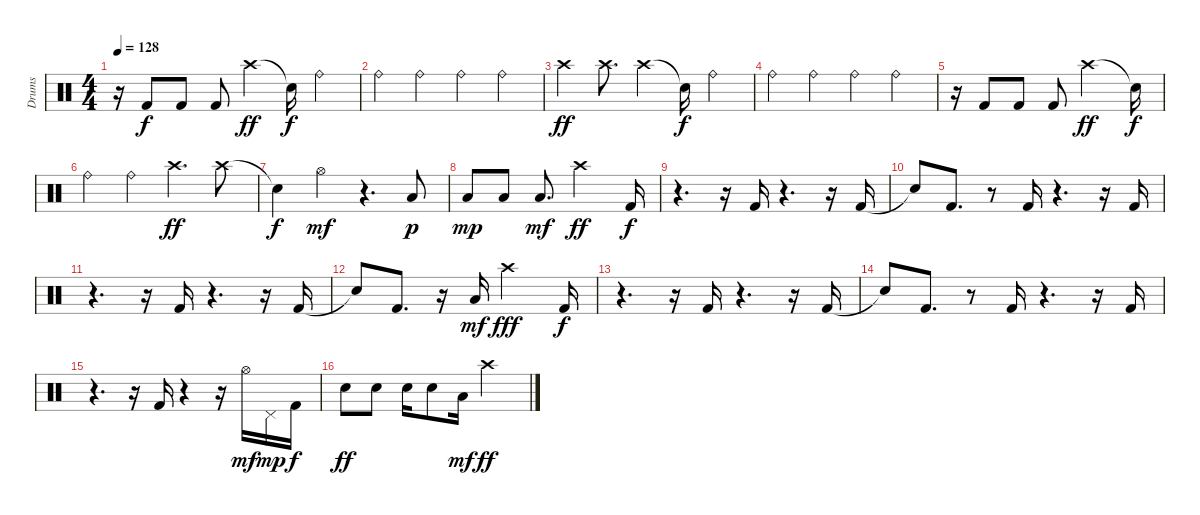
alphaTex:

\track ("Drums                               " "Drums     ") {instrument percussion}
\staff {score}
\articulation defaults
\ts (4 4)
\tempo 128
\clef neutral
\ks c
r.16{dy f} "Kick (hit) 2".8 "Kick (hit) 2".8 "Kick (hit) 2".8 "Crash high (hit)".4{dy ff} "Snare (hit)"{t}.16{dy f} "Ride (bell)".4 |
"Ride (bell)".4 "Ride (bell)".4 "Ride (bell)".4 "Ride (bell)".4 |
"Crash high (hit)".4{dy ff} "Crash high (hit)".8{d} "Crash high (hit)".4 "Snare (hit)"{t}.16{dy f} "Ride (bell)".4 |
"Ride (bell)".4 "Ride (bell)".4 "Ride (bell)".4 "Ride (bell)".4 |
r.16 "Kick (hit) 2".8 "Kick (hit) 2".8 "Kick (hit) 2".8 "Crash high (hit)".2{dy ff} "Snare (hit)"{t}.16{dy f} |
"Ride (bell)".4 "Ride (bell)".4 "Crash high (hit)".4{d dy ff} "Crash high (hit)".8 |
"Snare (hit)"{t}.4{dy f} "Hi-Hat (open)".4{dy mf} r.4{d} "Low Tom (hit)".8{dy p} |
"Low Tom (hit)".8{dy mp} "Low Tom (hit)".8 "Low Tom (hit)".8{d dy mf} "Crash high (hit)".2{dy ff} "Kick (hit) 2".16{dy f} |
r.4{d} r.16 "Kick (hit) 2".16 r.4{d} r.16 "Kick (hit) 2".16 |
"Snare (hit)"{t}.8 "Kick (hit) 2".8{d} r.8 "Kick (hit) 2".16 r.4{d} r.16 "Kick (hit) 2".16 |
r.4{d} r.16 "Kick (hit) 2".16 r.4{d} r.16 "Kick (hit) 2".16 |
"Snare (hit)"{t}.8 "Kick (hit) 2".8{d} r.16 "Low Tom (hit)".16{dy mf} "Crash high (hit)".2{dy fff} "Kick (hit) 2".16{dy f} |
r.4{d} r.16 "Kick (hit) 2".16 r.4{d} r.16 "Kick (hit) 2".16 |
"Snare (hit)"{t}.8 "Kick (hit) 2".8{d} r.8 "Kick (hit) 2".16 r.4{d} r.16 "Kick (hit) 2".16 |
r.4{d} r.16 "Kick (hit) 2".16 r.4 r.16 "Hi-Hat (open)".16{dy mf} "Pedal Hi-Hat (hit)".16{dy mp} "Kick (hit) 2".16{dy f} |
"Snare (hit) 2".8{dy ff} "Snare (hit) 2".8 "Snare (hit) 2".16 "Snare (hit) 2".8 "Low Floor Tom (hit)".16{dy mf} "Crash high (hit)".2{dy ff}
